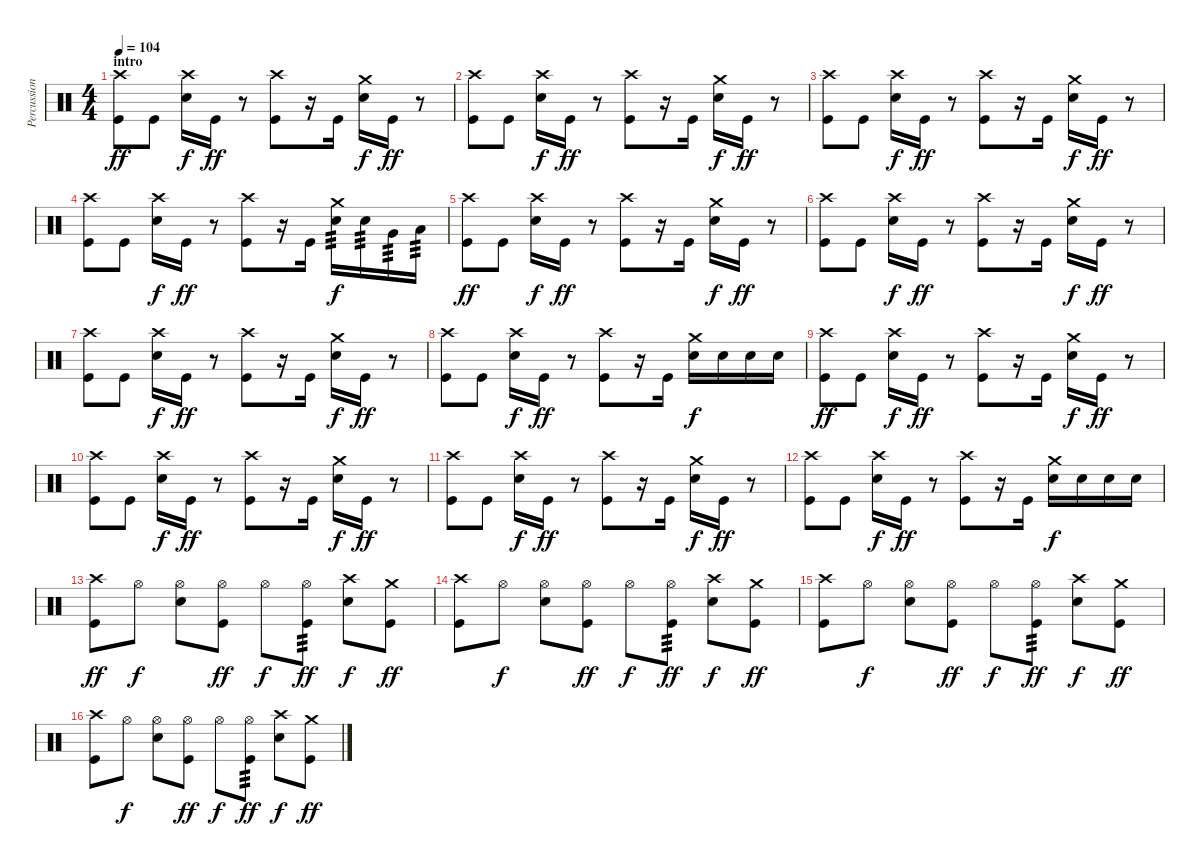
\track ("Percussion" "Percussion") {instrument percussion}
\staff {score}
\articulation defaults
\ts (4 4)
\section ("" "intro")
\tempo 104
\clef neutral
\ks c
("Crash high (hit)" "Kick (hit)").8{dy ff} "Kick (hit)".8 ("Crash high (hit)" "Electric Snare (hit)").16{dy f} "Kick (hit)".16{dy ff} r.8 ("Crash high (hit)" "Kick (hit)").8 r.16 "Kick (hit)".16 ("Crash medium (hit)" "Electric Snare (hit)").16{dy f} "Kick (hit)".16{dy ff} r.8 |
("Crash high (hit)" "Kick (hit)").8 "Kick (hit)".8 ("Crash high (hit)" "Electric Snare (hit)").16{dy f} "Kick (hit)".16{dy ff} r.8 ("Crash high (hit)" "Kick (hit)").8 r.16 "Kick (hit)".16 ("Crash medium (hit)" "Electric Snare (hit)").16{dy f} "Kick (hit)".16{dy ff} r.8 |
("Crash high (hit)" "Kick (hit)").8 "Kick (hit)".8 ("Crash high (hit)" "Electric Snare (hit)").16{dy f} "Kick (hit)".16{dy ff} r.8 ("Crash high (hit)" "Kick (hit)").8 r.16 "Kick (hit)".16 ("Crash medium (hit)" "Electric Snare (hit)").16{dy f} "Kick (hit)".16{dy ff} r.8 |
("Crash high (hit)" "Kick (hit)").8 "Kick (hit)".8 ("Crash high (hit)" "Electric Snare (hit)").16{dy f} "Kick (hit)".16{dy ff} r.8 ("Crash high (hit)" "Kick (hit)").8 r.16 "Kick (hit)".16 ("Crash medium (hit)" "Electric Snare (hit)").16{tp 3 dy f} "Electric Snare (hit)".16{tp 3} "Very Low Tom (hit)".16{tp 3} "Low Floor Tom (hit)".16{tp 3} |
("Crash high (hit)" "Kick (hit)").8{dy ff} "Kick (hit)".8 ("Crash high (hit)" "Electric Snare (hit)").16{dy f} "Kick (hit)".16{dy ff} r.8 ("Crash high (hit)" "Kick (hit)").8 r.16 "Kick (hit)".16 ("Crash medium (hit)" "Electric Snare (hit)").16{dy f} "Kick (hit)".16{dy ff} r.8 |
("Crash high (hit)" "Kick (hit)").8 "Kick (hit)".8 ("Crash high (hit)" "Electric Snare (hit)").16{dy f} "Kick (hit)".16{dy ff} r.8 ("Crash high (hit)" "Kick (hit)").8 r.16 "Kick (hit)".16 ("Crash medium (hit)" "Electric Snare (hit)").16{dy f} "Kick (hit)".16{dy ff} r.8 |
("Crash high (hit)" "Kick (hit)").8 "Kick (hit)".8 ("Crash high (hit)" "Electric Snare (hit)").16{dy f} "Kick (hit)".16{dy ff} r.8 ("Crash high (hit)" "Kick (hit)").8 r.16 "Kick (hit)".16 ("Crash medium (hit)" "Electric Snare (hit)").16{dy f} "Kick (hit)".16{dy ff} r.8 |
("Crash high (hit)" "Kick (hit)").8 "Kick (hit)".8 ("Crash high (hit)" "Electric Snare (hit)").16{dy f} "Kick (hit)".16{dy ff} r.8 ("Crash high (hit)" "Kick (hit)").8 r.16 "Kick (hit)".16 ("Crash medium (hit)" "Electric Snare (hit)").16{dy f} "Electric Snare (hit)".16 "Electric Snare (hit)".16 "Electric Snare (hit)".16 |
("Crash high (hit)" "Kick (hit)").8{dy ff} "Kick (hit)".8 ("Crash high (hit)" "Electric Snare (hit)").16{dy f} "Kick (hit)".16{dy ff} r.8 ("Crash high (hit)" "Kick (hit)").8 r.16 "Kick (hit)".16 ("Crash medium (hit)" "Electric Snare (hit)").16{dy f} "Kick (hit)".16{dy ff} r.8 |
("Crash high (hit)" "Kick (hit)").8 "Kick (hit)".8 ("Crash high (hit)" "Electric Snare (hit)").16{dy f} "Kick (hit)".16{dy ff} r.8 ("Crash high (hit)" "Kick (hit)").8 r.16 "Kick (hit)".16 ("Crash medium (hit)" "Electric Snare (hit)").16{dy f} "Kick (hit)".16{dy ff} r.8 |
("Crash high (hit)" "Kick (hit)").8 "Kick (hit)".8 ("Crash high (hit)" "Electric Snare (hit)").16{dy f} "Kick (hit)".16{dy ff} r.8 ("Crash high (hit)" "Kick (hit)").8 r.16 "Kick (hit)".16 ("Crash medium (hit)" "Electric Snare (hit)").16{dy f} "Kick (hit)".16{dy ff} r.8 |
("Crash high (hit)" "Kick (hit)").8 "Kick (hit)".8 ("Crash high (hit)" "Electric Snare (hit)").16{dy f} "Kick (hit)".16{dy ff} r.8 ("Crash high (hit)" "Kick (hit)").8 r.16 "Kick (hit)".16 ("Crash medium (hit)" "Electric Snare (hit)").16{dy f} "Electric Snare (hit)".16 "Electric Snare (hit)".16 "Electric Snare (hit)".16 |
("Crash high (hit)" "Kick (hit)").8{dy ff} "Hi-Hat (open)".8{dy f} ("Hi-Hat (open)" "Electric Snare (hit)").8 ("Hi-Hat (open)" "Kick (hit)").8{dy ff} "Hi-Hat (open)".8{dy f} ("Hi-Hat (open)" "Kick (hit)").8{tp 3 dy ff} ("Crash high (hit)" "Electric Snare (hit)").8{dy f} ("Crash medium (hit)" "Kick (hit)").8{dy ff} |
("Crash high (hit)" "Kick (hit)").8 "Hi-Hat (open)".8{dy f} ("Hi-Hat (open)" "Electric Snare (hit)").8 ("Hi-Hat (open)" "Kick (hit)").8{dy ff} "Hi-Hat (open)".8{dy f} ("Hi-Hat (open)" "Kick (hit)").8{tp 3 dy ff} ("Crash high (hit)" "Electric Snare (hit)").8{dy f} ("Crash medium (hit)" "Kick (hit)").8{dy ff} |
("Crash high (hit)" "Kick (hit)").8 "Hi-Hat (open)".8{dy f} ("Hi-Hat (open)" "Electric Snare (hit)").8 ("Hi-Hat (open)" "Kick (hit)").8{dy ff} "Hi-Hat (open)".8{dy f} ("Hi-Hat (open)" "Kick (hit)").8{tp 3 dy ff} ("Crash high (hit)" "Electric Snare (hit)").8{dy f} ("Crash medium (hit)" "Kick (hit)").8{dy ff} |
("Crash high (hit)" "Kick (hit)").8 "Hi-Hat (open)".8{dy f} ("Hi-Hat (open)" "Electric Snare (hit)").8 ("Hi-Hat (open)" "Kick (hit)").8{dy ff} "Hi-Hat (open)".8{dy f} ("Hi-Hat (open)" "Kick (hit)").8{tp 3 dy ff} ("Crash high (hit)" "Electric Snare (hit)").8{dy f} ("Crash medium (hit)" "Kick (hit)").8{dy ff}
